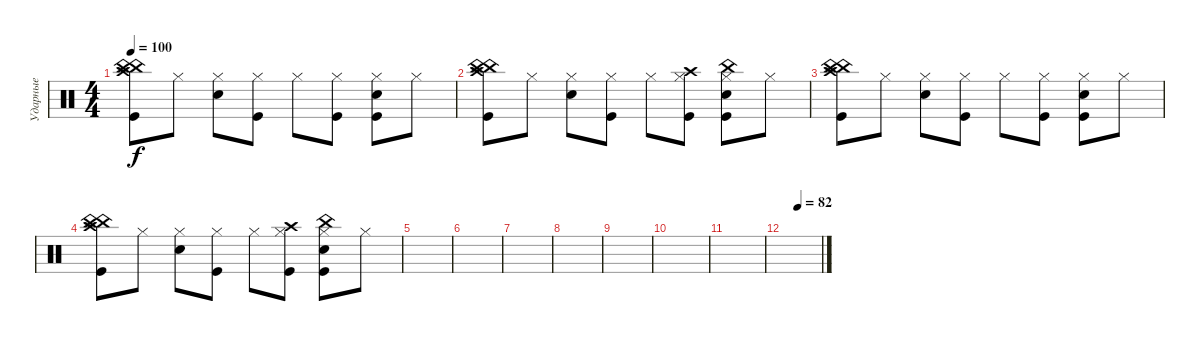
\track ("Ударные" "Ударные") {instrument percussion}
\staff {score}
\articulation defaults
\ts (4 4)
\tempo 100
\clef neutral
\ks c
("China (hit)" "Crash high (hit)" "China (hit)" "Kick (hit)").8{dy f} "Hi-Hat (closed)".8 ("Hi-Hat (closed)" "Snare (hit) 2").8 ("Hi-Hat (closed)" "Kick (hit)").8 "Hi-Hat (closed)".8 ("Hi-Hat (closed)" "Kick (hit)").8 ("Hi-Hat (closed)" "Kick (hit)" "Snare (hit) 2").8 "Hi-Hat (closed)".8 |
("China (hit)" "Crash high (hit)" "China (hit)" "Kick (hit)").8 "Hi-Hat (closed)".8 ("Hi-Hat (closed)" "Snare (hit) 2").8 ("Hi-Hat (closed)" "Kick (hit)").8 "Hi-Hat (closed)".8 ("Hi-Hat (closed)" "Kick (hit)" "Crash high (hit)").8 ("Hi-Hat (closed)" "Kick (hit)" "Snare (hit) 2" "China (hit)").8 "Hi-Hat (closed)".8 |
("China (hit)" "Crash high (hit)" "China (hit)" "Kick (hit)").8 "Hi-Hat (closed)".8 ("Hi-Hat (closed)" "Snare (hit) 2").8 ("Hi-Hat (closed)" "Kick (hit)").8 "Hi-Hat (closed)".8 ("Hi-Hat (closed)" "Kick (hit)").8 ("Hi-Hat (closed)" "Kick (hit)" "Snare (hit) 2").8 "Hi-Hat (closed)".8 |
("China (hit)" "Crash high (hit)" "China (hit)" "Kick (hit)").8 "Hi-Hat (closed)".8 ("Hi-Hat (closed)" "Snare (hit) 2").8 ("Hi-Hat (closed)" "Kick (hit)").8 "Hi-Hat (closed)".8 ("Hi-Hat (closed)" "Kick (hit)" "Crash high (hit)").8 ("Hi-Hat (closed)" "Kick (hit)" "Snare (hit) 2" "China (hit)").8 "Hi-Hat (closed)".8 |
|
|
|
|
|
|
|
\tempo (82 0.375)
